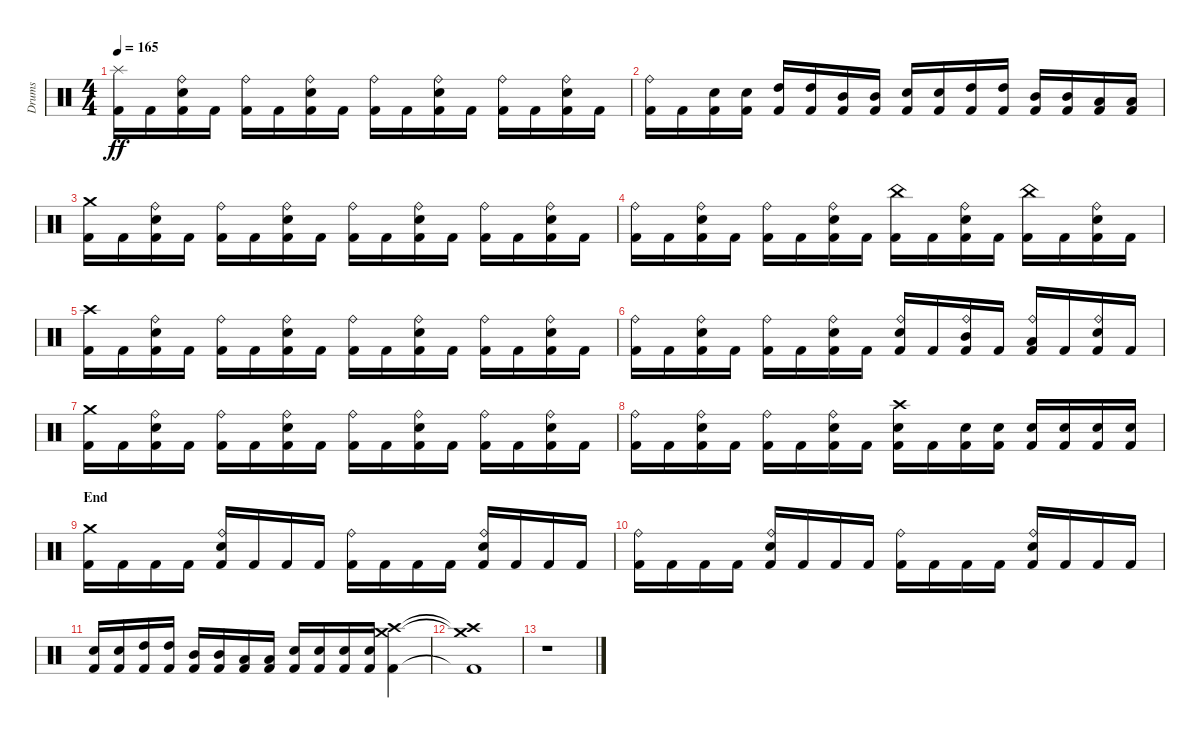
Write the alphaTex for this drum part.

\track ("Drums" "Drums") {instrument percussion}
\staff {score}
\articulation defaults
\ts (4 4)
\tempo 165
\clef neutral
\ks c
("Splash (hit)" "Kick (hit) 2").16{dy ff} "Kick (hit) 2".16 ("Ride (bell)" "Electric Snare (hit)" "Kick (hit) 2").16 "Kick (hit) 2".16 ("Ride (bell)" "Kick (hit) 2").16 "Kick (hit) 2".16 ("Ride (bell)" "Electric Snare (hit)" "Kick (hit) 2").16 "Kick (hit) 2".16 ("Ride (bell)" "Kick (hit) 2").16 "Kick (hit) 2".16 ("Ride (bell)" "Electric Snare (hit)" "Kick (hit) 2").16 "Kick (hit) 2".16 ("Ride (bell)" "Kick (hit) 2").16 "Kick (hit) 2".16 ("Ride (bell)" "Electric Snare (hit)" "Kick (hit) 2").16 "Kick (hit) 2".16 |
("Ride (bell)" "Kick (hit) 2").16 "Kick (hit) 2".16 ("Electric Snare (hit)" "Kick (hit) 2").16 ("Electric Snare (hit)" "Kick (hit) 2").16 ("High Tom (hit)" "Kick (hit) 2").16 ("High Tom (hit)" "Kick (hit) 2").16 ("Mid Tom (hit)" "Kick (hit) 2").16 ("Mid Tom (hit)" "Kick (hit) 2").16 ("Electric Snare (hit)" "Kick (hit) 2").16 ("Electric Snare (hit)" "Kick (hit) 2").16 ("High Tom (hit)" "Kick (hit) 2").16 ("High Tom (hit)" "Kick (hit) 2").16 ("Mid Tom (hit)" "Kick (hit) 2").16 ("Mid Tom (hit)" "Kick (hit) 2").16 ("Low Tom (hit)" "Kick (hit) 2").16 ("Low Tom (hit)" "Kick (hit) 2").16 |
("Crash medium (hit)" "Kick (hit) 2").16 "Kick (hit) 2".16 ("Ride (bell)" "Electric Snare (hit)" "Kick (hit) 2").16 "Kick (hit) 2".16 ("Ride (bell)" "Kick (hit) 2").16 "Kick (hit) 2".16 ("Ride (bell)" "Electric Snare (hit)" "Kick (hit) 2").16 "Kick (hit) 2".16 ("Ride (bell)" "Kick (hit) 2").16 "Kick (hit) 2".16 ("Ride (bell)" "Electric Snare (hit)" "Kick (hit) 2").16 "Kick (hit) 2".16 ("Ride (bell)" "Kick (hit) 2").16 "Kick (hit) 2".16 ("Ride (bell)" "Electric Snare (hit)" "Kick (hit) 2").16 "Kick (hit) 2".16 |
("Ride (bell)" "Kick (hit) 2").16 "Kick (hit) 2".16 ("Ride (bell)" "Electric Snare (hit)" "Kick (hit) 2").16 "Kick (hit) 2".16 ("Ride (bell)" "Kick (hit) 2").16 "Kick (hit) 2".16 ("Ride (bell)" "Electric Snare (hit)" "Kick (hit) 2").16 "Kick (hit) 2".16 ("China (hit)" "Kick (hit) 2").16 "Kick (hit) 2".16 ("Ride (bell)" "Electric Snare (hit)" "Kick (hit) 2").16 "Kick (hit) 2".16 ("China (hit)" "Kick (hit) 2").16 "Kick (hit) 2".16 ("Ride (bell)" "Electric Snare (hit)" "Kick (hit) 2").16 "Kick (hit) 2".16 |
("Crash high (hit)" "Kick (hit) 2").16 "Kick (hit) 2".16 ("Ride (bell)" "Electric Snare (hit)" "Kick (hit) 2").16 "Kick (hit) 2".16 ("Ride (bell)" "Kick (hit) 2").16 "Kick (hit) 2".16 ("Ride (bell)" "Electric Snare (hit)" "Kick (hit) 2").16 "Kick (hit) 2".16 ("Ride (bell)" "Kick (hit) 2").16 "Kick (hit) 2".16 ("Ride (bell)" "Electric Snare (hit)" "Kick (hit) 2").16 "Kick (hit) 2".16 ("Ride (bell)" "Kick (hit) 2").16 "Kick (hit) 2".16 ("Ride (bell)" "Electric Snare (hit)" "Kick (hit) 2").16 "Kick (hit) 2".16 |
("Ride (bell)" "Kick (hit) 2").16 "Kick (hit) 2".16 ("Ride (bell)" "Electric Snare (hit)" "Kick (hit) 2").16 "Kick (hit) 2".16 ("Ride (bell)" "Kick (hit) 2").16 "Kick (hit) 2".16 ("Ride (bell)" "Electric Snare (hit)" "Kick (hit) 2").16 "Kick (hit) 2".16 ("Ride (bell)" "Electric Snare (hit)" "Kick (hit) 2").16 "Kick (hit) 2".16 ("Ride (bell)" "Mid Tom (hit)" "Kick (hit) 2").16 "Kick (hit) 2".16 ("Ride (bell)" "Low Tom (hit)" "Kick (hit) 2").16 "Kick (hit) 2".16 ("Ride (bell)" "Electric Snare (hit)" "Kick (hit) 2").16 "Kick (hit) 2".16 |
("Crash medium (hit)" "Kick (hit) 2").16 "Kick (hit) 2".16 ("Ride (bell)" "Electric Snare (hit)" "Kick (hit) 2").16 "Kick (hit) 2".16 ("Ride (bell)" "Kick (hit) 2").16 "Kick (hit) 2".16 ("Ride (bell)" "Electric Snare (hit)" "Kick (hit) 2").16 "Kick (hit) 2".16 ("Ride (bell)" "Kick (hit) 2").16 "Kick (hit) 2".16 ("Ride (bell)" "Electric Snare (hit)" "Kick (hit) 2").16 "Kick (hit) 2".16 ("Ride (bell)" "Kick (hit) 2").16 "Kick (hit) 2".16 ("Ride (bell)" "Electric Snare (hit)" "Kick (hit) 2").16 "Kick (hit) 2".16 |
("Ride (bell)" "Kick (hit) 2").16 "Kick (hit) 2".16 ("Ride (bell)" "Electric Snare (hit)" "Kick (hit) 2").16 "Kick (hit) 2".16 ("Ride (bell)" "Kick (hit) 2").16 "Kick (hit) 2".16 ("Ride (bell)" "Electric Snare (hit)" "Kick (hit) 2").16 "Kick (hit) 2".16 ("Crash high (hit)" "Electric Snare (hit)" "Kick (hit) 2").16 "Kick (hit) 2".16 ("Electric Snare (hit)" "Kick (hit) 2").16 ("Electric Snare (hit)" "Kick (hit) 2").16 ("Electric Snare (hit)" "Kick (hit) 2").16 ("Electric Snare (hit)" "Kick (hit) 2").16 ("Electric Snare (hit)" "Kick (hit) 2").16 ("Electric Snare (hit)" "Kick (hit) 2").16 |
\section ("" "End")
("Crash medium (hit)" "Kick (hit) 2").16 "Kick (hit) 2".16 "Kick (hit) 2".16 "Kick (hit) 2".16 ("Ride (bell)" "Electric Snare (hit)" "Kick (hit) 2").16 "Kick (hit) 2".16 "Kick (hit) 2".16 "Kick (hit) 2".16 ("Ride (bell)" "Kick (hit) 2").16 "Kick (hit) 2".16 "Kick (hit) 2".16 "Kick (hit) 2".16 ("Ride (bell)" "Electric Snare (hit)" "Kick (hit) 2").16 "Kick (hit) 2".16 "Kick (hit) 2".16 "Kick (hit) 2".16 |
("Ride (bell)" "Kick (hit) 2").16 "Kick (hit) 2".16 "Kick (hit) 2".16 "Kick (hit) 2".16 ("Ride (bell)" "Electric Snare (hit)" "Kick (hit) 2").16 "Kick (hit) 2".16 "Kick (hit) 2".16 "Kick (hit) 2".16 ("Ride (bell)" "Kick (hit) 2").16 "Kick (hit) 2".16 "Kick (hit) 2".16 "Kick (hit) 2".16 ("Ride (bell)" "Electric Snare (hit)" "Kick (hit) 2").16 "Kick (hit) 2".16 "Kick (hit) 2".16 "Kick (hit) 2".16 |
("Electric Snare (hit)" "Kick (hit) 2").16 ("Electric Snare (hit)" "Kick (hit) 2").16 ("High Tom (hit)" "Kick (hit) 2").16 ("High Tom (hit)" "Kick (hit) 2").16 ("Mid Tom (hit)" "Kick (hit) 2").16 ("Mid Tom (hit)" "Kick (hit) 2").16 ("Low Tom (hit)" "Kick (hit) 2").16 ("Low Tom (hit)" "Kick (hit) 2").16 ("Electric Snare (hit)" "Kick (hit) 2").16 ("Electric Snare (hit)" "Kick (hit) 2").16 ("Electric Snare (hit)" "Kick (hit) 2").16 ("Electric Snare (hit)" "Kick (hit) 2").16 ("Crash medium (hit)" "Crash high (hit)" "Kick (hit) 2").4 |
("Crash medium (hit)"{t} "Crash high (hit)"{t} "Kick (hit) 2"{t}).1 |
r.1
